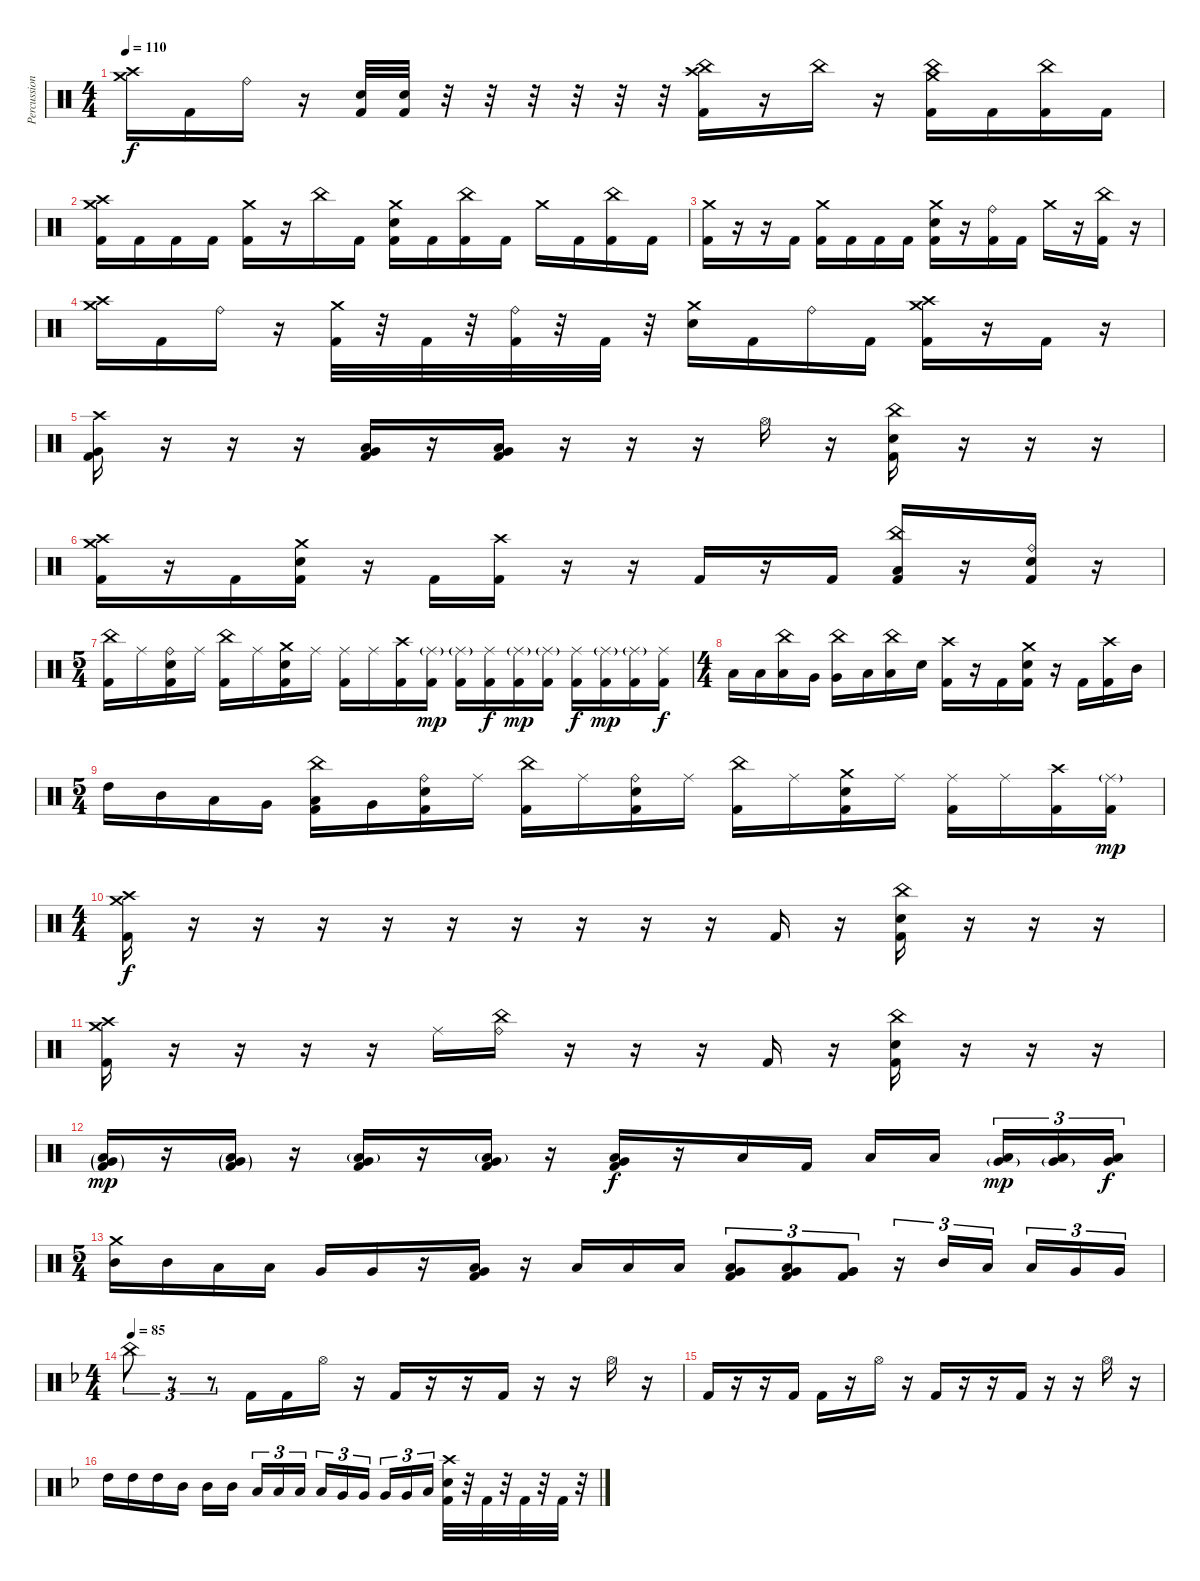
\track ("Percussion" "Percussion") {instrument percussion}
\staff {score}
\articulation defaults
\ts (4 4)
\tempo 110
\clef neutral
\ks c
("Crash medium (hit)" "Crash high (hit)").16{dy f} "Kick (hit) 2".16 "Ride (bell)".16 r.16 ("Kick (hit) 2" "Electric Snare (hit)").32 ("Kick (hit) 2" "Electric Snare (hit)").32 r.32 r.32 r.32 r.32 r.32 r.32 ("Kick (hit) 2" "China (hit)" "Crash high (hit)").16 r.16 "China (hit)".16 r.16 ("Kick (hit) 2" "China (hit)" "Crash medium (hit)").16 "Kick (hit) 2".16 ("Kick (hit) 2" "China (hit)").16 "Kick (hit) 2".16 |
("Kick (hit) 2" "Crash high (hit)" "Crash medium (hit)").16 "Kick (hit) 2".16 "Kick (hit) 2".16 "Kick (hit) 2".16 ("Kick (hit) 2" "Crash medium (hit)").16 r.16 "China (hit)".16 "Kick (hit) 2".16 ("Kick (hit) 2" "Crash medium (hit)" "Electric Snare (hit)").16 "Kick (hit) 2".16 ("Kick (hit) 2" "China (hit)").16 "Kick (hit) 2".16 "Crash medium (hit)".16 "Kick (hit) 2".16 ("Kick (hit) 2" "China (hit)").16 "Kick (hit) 2".16 |
("Kick (hit) 2" "Crash medium (hit)").16 r.16 r.16 "Kick (hit) 2".16 ("Kick (hit) 2" "Crash medium (hit)").16 "Kick (hit) 2".16 "Kick (hit) 2".16 "Kick (hit) 2".16 ("Kick (hit) 2" "Crash medium (hit)" "Electric Snare (hit)").16 r.16 ("Kick (hit) 2" "Ride (bell)").16 "Kick (hit) 2".16 "Crash medium (hit)".16 r.16 ("Kick (hit) 2" "China (hit)").16 r.16 |
("Crash medium (hit)" "Crash high (hit)").16 "Kick (hit) 2".16 "Ride (bell)".16 r.16 ("Kick (hit) 2" "Crash medium (hit)").32 r.32 "Kick (hit) 2".32 r.32 ("Kick (hit) 2" "Ride (bell)").32 r.32 "Kick (hit) 2".32 r.32 ("Crash medium (hit)" "Electric Snare (hit)").16 "Kick (hit) 2".16 "Ride (bell)".16 "Kick (hit) 2".16 ("Kick (hit) 2" "Crash high (hit)" "Crash medium (hit)").16 r.16 "Kick (hit) 2".16 r.16 |
("Kick (hit) 2" "Very Low Tom (hit)" "Crash high (hit)").16 r.16 r.16 r.16 ("Kick (hit) 2" "Very Low Tom (hit)" "Low Floor Tom (hit)").16 r.16 ("Kick (hit) 2" "Very Low Tom (hit)" "Low Floor Tom (hit)").16 r.16 r.16 r.16 "Hi-Hat (open)".16 r.16 ("Kick (hit) 2" "Electric Snare (hit)" "China (hit)").16 r.16 r.16 r.16 |
("Kick (hit) 2" "Crash medium (hit)" "Crash high (hit)").16 r.16 "Kick (hit) 2".16 ("Kick (hit) 2" "Electric Snare (hit)" "Crash medium (hit)").16 r.16 "Kick (hit) 2".16 ("Kick (hit) 2" "Crash high (hit)").16 r.16 r.16 "Kick (hit) 2".16 r.16 "Kick (hit) 2".16 ("Kick (hit) 2" "Low Floor Tom (hit)" "China (hit)").16 r.16 ("Kick (hit) 2" "Electric Snare (hit)" "Ride (bell)").16 r.16 |
\ts (5 4)
("Kick (hit) 2" "China (hit)").16 "Ride (middle)".16 ("Kick (hit) 2" "Electric Snare (hit)" "Ride (bell)").16 "Ride (middle)".16 ("Kick (hit) 2" "China (hit)").16 "Ride (middle)".16 ("Kick (hit) 2" "Electric Snare (hit)" "Crash medium (hit)").16 "Ride (middle)".16 ("Kick (hit) 2" "Ride (middle)").16 "Ride (middle)".16 ("Kick (hit) 2" "Crash high (hit)").16 ("Kick (hit) 2" "Ride (middle)"{g}).16{dy mp} ("Kick (hit) 2" "Ride (middle)"{g}).16 ("Kick (hit) 2" "Ride (middle)").16{dy f} ("Kick (hit) 2" "Ride (middle)"{g}).16{dy mp} ("Kick (hit) 2" "Ride (middle)"{g}).16 ("Kick (hit) 2" "Ride (middle)").16{dy f} ("Kick (hit) 2" "Ride (middle)"{g}).16{dy mp} ("Kick (hit) 2" "Ride (middle)"{g}).16 ("Kick (hit) 2" "Ride (middle)").16{dy f} |
\ts (4 4)
"Low Tom (hit)".16 "Low Tom (hit)".16 ("Low Tom (hit)" "China (hit)").16 "Very Low Tom (hit)".16 ("Very Low Tom (hit)" "China (hit)").16 "Low Floor Tom (hit)".16 ("Low Floor Tom (hit)" "China (hit)").16 "Electric Snare (hit)".16 ("Kick (hit) 2" "Crash high (hit)").16 r.16 "Kick (hit) 2".16 ("Kick (hit) 2" "Electric Snare (hit)" "Crash medium (hit)").16 r.16 "Kick (hit) 2".16 ("Kick (hit) 2" "Crash high (hit)").16 "Mid Tom (hit)".16 |
\ts (5 4)
"High Tom (hit)".16 "Mid Tom (hit)".16 "Low Tom (hit)".16 "Very Low Tom (hit)".16 ("Kick (hit) 2" "Low Floor Tom (hit)" "China (hit)").16 "Very Low Tom (hit)".16 ("Kick (hit) 2" "Electric Snare (hit)" "Ride (bell)").16 "Ride (middle)".16 ("Kick (hit) 2" "China (hit)").16 "Ride (middle)".16 ("Kick (hit) 2" "Electric Snare (hit)" "Ride (bell)").16 "Ride (middle)".16 ("Kick (hit) 2" "China (hit)").16 "Ride (middle)".16 ("Kick (hit) 2" "Electric Snare (hit)" "Crash medium (hit)").16 "Ride (middle)".16 ("Kick (hit) 2" "Ride (middle)").16 "Ride (middle)".16 ("Kick (hit) 2" "Crash high (hit)").16 ("Kick (hit) 2" "Ride (middle)"{g}).16{dy mp} |
\ts (4 4)
("Kick (hit) 2" "Crash medium (hit)" "Crash high (hit)").16{dy f} r.16 r.16 r.16 r.16 r.16 r.16 r.16 r.16 r.16 "Kick (hit) 2".16 r.16 ("Kick (hit) 2" "Electric Snare (hit)" "China (hit)").16 r.16 r.16 r.16 |
("Kick (hit) 2" "Crash medium (hit)" "Crash high (hit)").16 r.16 r.16 r.16 r.16 "Ride (middle)".16 ("Ride (bell)" "China (hit)").16 r.16 r.16 r.16 "Kick (hit) 2".16 r.16 ("Kick (hit) 2" "Electric Snare (hit)" "China (hit)").16 r.16 r.16 r.16 |
("Kick (hit) 2"{g} "Low Floor Tom (hit)"{g} "Very Low Tom (hit)"{g}).16{dy mp} r.16 ("Kick (hit) 2"{g} "Low Floor Tom (hit)"{g} "Very Low Tom (hit)"{g}).16 r.16 ("Kick (hit) 2" "Low Floor Tom (hit)"{g} "Very Low Tom (hit)").16 r.16 ("Kick (hit) 2" "Low Floor Tom (hit)"{g} "Very Low Tom (hit)").16 r.16 ("Kick (hit) 2" "Low Floor Tom (hit)" "Very Low Tom (hit)").16{dy f} r.16 "Low Floor Tom (hit)".16 "Kick (hit) 2".16 "Low Floor Tom (hit)".16 "Low Floor Tom (hit)".16 ("Low Floor Tom (hit)" "Very Low Tom (hit)"{g}).16{tu (3 2) dy mp} ("Low Floor Tom (hit)" "Very Low Tom (hit)"{g}).16{tu (3 2)} ("Low Floor Tom (hit)" "Very Low Tom (hit)").16{tu (3 2) dy f} |
\ts (5 4)
("Mid Tom (hit)" "Crash medium (hit)").16 "Mid Tom (hit)".16 "Low Tom (hit)".16 "Low Tom (hit)".16 "Very Low Tom (hit)".16 "Very Low Tom (hit)".16 r.16 ("Kick (hit) 2" "Low Floor Tom (hit)" "Very Low Tom (hit)").16 r.16 "Low Floor Tom (hit)".16 "Low Floor Tom (hit)".16 "Low Floor Tom (hit)".16 ("Kick (hit) 2" "Low Floor Tom (hit)" "Very Low Tom (hit)").8{tu (3 2)} ("Kick (hit) 2" "Low Floor Tom (hit)" "Very Low Tom (hit)").8{tu (3 2)} ("Kick (hit) 2" "Very Low Tom (hit)" "Very Low Tom (hit)").8{tu (3 2)} r.16{tu (3 2)} "Mid Tom (hit)".16{tu (3 2)} "Low Tom (hit)".16{tu (3 2)} "Low Tom (hit)".16{tu (3 2)} "Very Low Tom (hit)".16{tu (3 2)} "Very Low Tom (hit)".16{tu (3 2)} |
\ts (4 4)
\tempo 85
\ks dminor "China (hit)".8{tu (3 2)}
r.8{tu (3 2)} r.8{tu (3 2)} "Kick (hit) 2".16 "Kick (hit) 2".16 "Hi-Hat (open)".16 r.16 "Kick (hit) 2".16 r.16 r.16 "Kick (hit) 2".16 r.16 r.16 "Hi-Hat (open)".16 r.16 |
"Kick (hit) 2".16 r.16 r.16 "Kick (hit) 2".16 "Kick (hit) 2".16 r.16 "Hi-Hat (open)".16 r.16 "Kick (hit) 2".16 r.16 r.16 "Kick (hit) 2".16 r.16 r.16 "Hi-Hat (open)".16 r.16 |
"High Tom (hit)".16 "High Tom (hit)".16 "High Tom (hit)".16 "Mid Tom (hit)".16 "Mid Tom (hit)".16 "Mid Tom (hit)".16 "Low Tom (hit)".16{tu (3 2)} "Low Tom (hit)".16{tu (3 2)} "Low Tom (hit)".16{tu (3 2)} "Low Tom (hit)".16{tu (3 2)} "Very Low Tom (hit)".16{tu (3 2)} "Very Low Tom (hit)".16{tu (3 2)} "Very Low Tom (hit)".16{tu (3 2)} "Very Low Tom (hit)".16{tu (3 2)} "Low Floor Tom (hit)".16{tu (3 2)} ("Kick (hit) 2" "Electric Snare (hit)" "Crash high (hit)").32 r.32 "Kick (hit) 2".32 r.32 "Kick (hit) 2".32 r.32 "Kick (hit) 2".32 r.32
